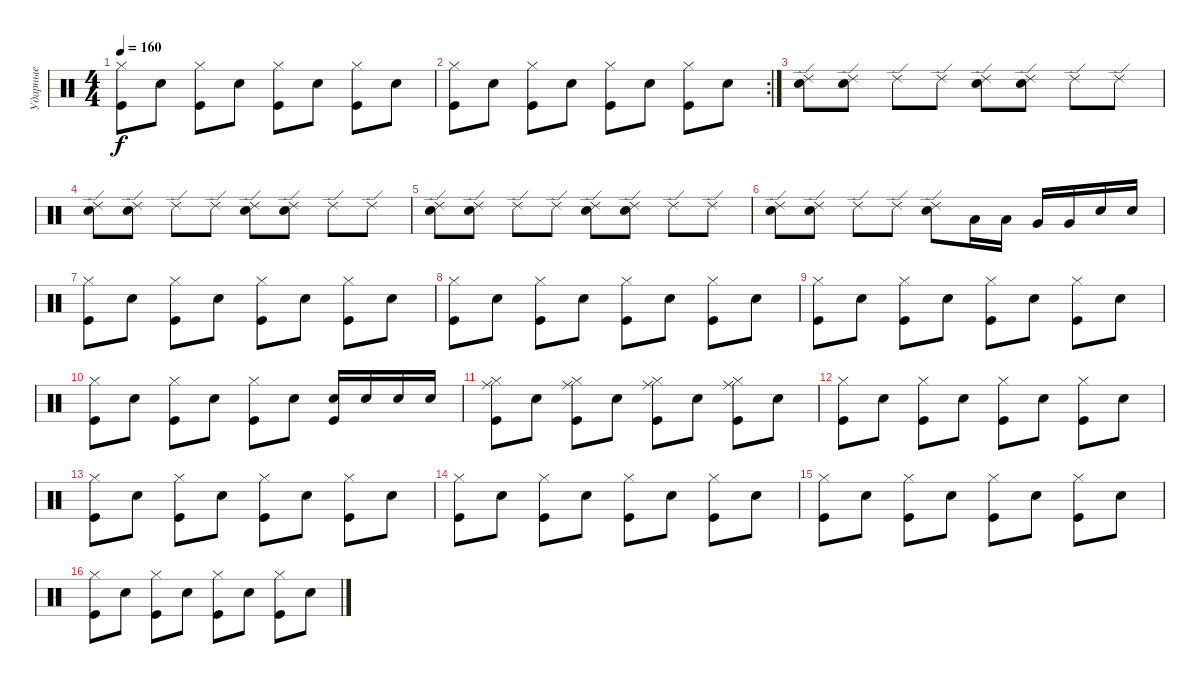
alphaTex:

\track ("Ударные" "Ударные") {instrument percussion}
\staff {score}
\articulation defaults
\ts (4 4)
\tempo 160
\clef neutral
\ks c
("Hi-Hat (closed)" "Kick (hit)").8{dy f} "Snare (hit) 2".8 ("Hi-Hat (closed)" "Kick (hit)").8 "Snare (hit) 2".8 ("Hi-Hat (closed)" "Kick (hit)").8 "Snare (hit) 2".8 ("Hi-Hat (closed)" "Kick (hit)").8 "Snare (hit) 2".8 |
\rc 2
("Hi-Hat (closed)" "Kick (hit)").8 "Snare (hit) 2".8 ("Hi-Hat (closed)" "Kick (hit)").8 "Snare (hit) 2".8 ("Hi-Hat (closed)" "Kick (hit)").8 "Snare (hit) 2".8 ("Hi-Hat (closed)" "Kick (hit)").8 "Snare (hit) 2".8 |
("Ride (edge) 2" "Electric Snare (hit)").8 ("Ride (edge) 2" "Electric Snare (hit)").8 "Ride (edge) 2".8 "Ride (edge) 2".8 ("Ride (edge) 2" "Electric Snare (hit)").8 ("Ride (edge) 2" "Electric Snare (hit)").8 "Ride (edge) 2".8 "Ride (edge) 2".8 |
("Ride (edge) 2" "Electric Snare (hit)").8 ("Ride (edge) 2" "Electric Snare (hit)").8 "Ride (edge) 2".8 "Ride (edge) 2".8 ("Ride (edge) 2" "Electric Snare (hit)").8 ("Ride (edge) 2" "Electric Snare (hit)").8 "Ride (edge) 2".8 "Ride (edge) 2".8 |
("Ride (edge) 2" "Electric Snare (hit)").8 ("Ride (edge) 2" "Electric Snare (hit)").8 "Ride (edge) 2".8 "Ride (edge) 2".8 ("Ride (edge) 2" "Electric Snare (hit)").8 ("Ride (edge) 2" "Electric Snare (hit)").8 "Ride (edge) 2".8 "Ride (edge) 2".8 |
("Ride (edge) 2" "Electric Snare (hit)").8 ("Ride (edge) 2" "Electric Snare (hit)").8 "Ride (edge) 2".8 "Ride (edge) 2".8 ("Ride (edge) 2" "Electric Snare (hit)").8 "Low Tom (hit)".16 "Low Tom (hit)".16 "Very Low Tom (hit)".16 "Very Low Tom (hit)".16 "Electric Snare (hit)".16 "Electric Snare (hit)".16 |
("Hi-Hat (closed)" "Kick (hit)").8 "Snare (hit) 2".8 ("Hi-Hat (closed)" "Kick (hit)").8 "Snare (hit) 2".8 ("Hi-Hat (closed)" "Kick (hit)").8 "Snare (hit) 2".8 ("Hi-Hat (closed)" "Kick (hit)").8 "Snare (hit) 2".8 |
("Hi-Hat (closed)" "Kick (hit)").8 "Snare (hit) 2".8 ("Hi-Hat (closed)" "Kick (hit)").8 "Snare (hit) 2".8 ("Hi-Hat (closed)" "Kick (hit)").8 "Snare (hit) 2".8 ("Hi-Hat (closed)" "Kick (hit)").8 "Snare (hit) 2".8 |
("Hi-Hat (closed)" "Kick (hit)").8 "Snare (hit) 2".8 ("Hi-Hat (closed)" "Kick (hit)").8 "Snare (hit) 2".8 ("Hi-Hat (closed)" "Kick (hit)").8 "Snare (hit) 2".8 ("Hi-Hat (closed)" "Kick (hit)").8 "Snare (hit) 2".8 |
("Hi-Hat (closed)" "Kick (hit)").8 "Snare (hit) 2".8 ("Hi-Hat (closed)" "Kick (hit)").8 "Snare (hit) 2".8 ("Hi-Hat (closed)" "Kick (hit)").8 "Snare (hit) 2".8 ("Electric Snare (hit)" "Kick (hit)").16 "Electric Snare (hit)".16 "Electric Snare (hit)".16 "Electric Snare (hit)".16 |
("Hi-Hat (closed)" "Kick (hit)" "Ride (middle)").8 "Snare (hit) 2".8 ("Hi-Hat (closed)" "Kick (hit)" "Ride (middle)").8 "Snare (hit) 2".8 ("Hi-Hat (closed)" "Kick (hit)" "Ride (middle)").8 "Snare (hit) 2".8 ("Hi-Hat (closed)" "Kick (hit)" "Ride (middle)").8 "Snare (hit) 2".8 |
("Hi-Hat (closed)" "Kick (hit)").8 "Snare (hit) 2".8 ("Hi-Hat (closed)" "Kick (hit)").8 "Snare (hit) 2".8 ("Hi-Hat (closed)" "Kick (hit)").8 "Snare (hit) 2".8 ("Hi-Hat (closed)" "Kick (hit)").8 "Snare (hit) 2".8 |
("Hi-Hat (closed)" "Kick (hit)").8 "Snare (hit) 2".8 ("Hi-Hat (closed)" "Kick (hit)").8 "Snare (hit) 2".8 ("Hi-Hat (closed)" "Kick (hit)").8 "Snare (hit) 2".8 ("Hi-Hat (closed)" "Kick (hit)").8 "Snare (hit) 2".8 |
("Hi-Hat (closed)" "Kick (hit)").8 "Snare (hit) 2".8 ("Hi-Hat (closed)" "Kick (hit)").8 "Snare (hit) 2".8 ("Hi-Hat (closed)" "Kick (hit)").8 "Snare (hit) 2".8 ("Hi-Hat (closed)" "Kick (hit)").8 "Snare (hit) 2".8 |
("Hi-Hat (closed)" "Kick (hit)").8 "Snare (hit) 2".8 ("Hi-Hat (closed)" "Kick (hit)").8 "Snare (hit) 2".8 ("Hi-Hat (closed)" "Kick (hit)").8 "Snare (hit) 2".8 ("Hi-Hat (closed)" "Kick (hit)").8 "Snare (hit) 2".8 |
("Hi-Hat (closed)" "Kick (hit)").8 "Snare (hit) 2".8 ("Hi-Hat (closed)" "Kick (hit)").8 "Snare (hit) 2".8 ("Hi-Hat (closed)" "Kick (hit)").8 "Snare (hit) 2".8 ("Hi-Hat (closed)" "Kick (hit)").8 "Snare (hit) 2".8
